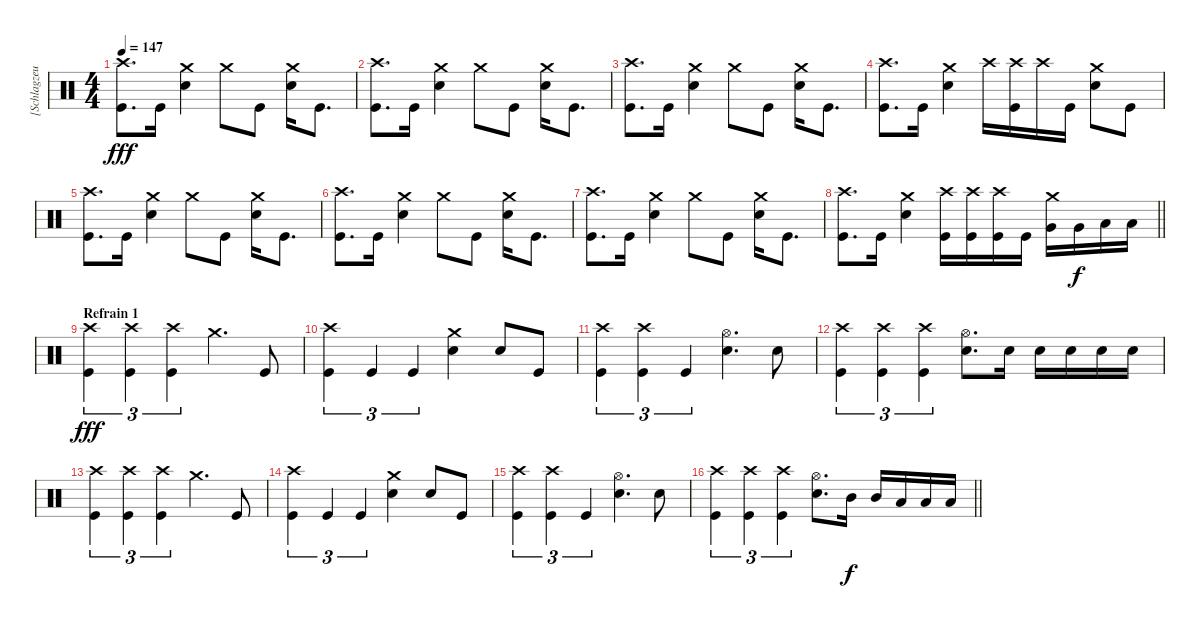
\track ("[Schlagzeug]" "[Schlagzeu") {instrument percussion}
\staff {score}
\articulation defaults
\ts (4 4)
\tempo 147
\clef neutral
\ks c
("Crash high (hit)" "Kick (hit)").8{d dy fff} "Kick (hit)".16 ("Crash medium (hit)" "Electric Snare (hit)").4 "Crash medium (hit)".8 "Kick (hit)".8 ("Crash medium (hit)" "Electric Snare (hit)").16 "Kick (hit)".8{d} |
("Crash high (hit)" "Kick (hit)").8{d} "Kick (hit)".16 ("Crash medium (hit)" "Electric Snare (hit)").4 "Crash medium (hit)".8 "Kick (hit)".8 ("Crash medium (hit)" "Electric Snare (hit)").16 "Kick (hit)".8{d} |
("Crash high (hit)" "Kick (hit)").8{d} "Kick (hit)".16 ("Crash medium (hit)" "Electric Snare (hit)").4 "Crash medium (hit)".8 "Kick (hit)".8 ("Crash medium (hit)" "Electric Snare (hit)").16 "Kick (hit)".8{d} |
("Crash high (hit)" "Kick (hit)").8{d} "Kick (hit)".16 ("Crash medium (hit)" "Electric Snare (hit)").4 "Crash high (hit)".16 ("Crash high (hit)" "Kick (hit)").16 "Crash high (hit)".16 "Kick (hit)".16 ("Crash medium (hit)" "Electric Snare (hit)").8 "Kick (hit)".8 |
("Crash high (hit)" "Kick (hit)").8{d} "Kick (hit)".16 ("Crash medium (hit)" "Electric Snare (hit)").4 "Crash medium (hit)".8 "Kick (hit)".8 ("Crash medium (hit)" "Electric Snare (hit)").16 "Kick (hit)".8{d} |
("Crash high (hit)" "Kick (hit)").8{d} "Kick (hit)".16 ("Crash medium (hit)" "Electric Snare (hit)").4 "Crash medium (hit)".8 "Kick (hit)".8 ("Crash medium (hit)" "Electric Snare (hit)").16 "Kick (hit)".8{d} |
("Crash high (hit)" "Kick (hit)").8{d} "Kick (hit)".16 ("Crash medium (hit)" "Electric Snare (hit)").4 "Crash medium (hit)".8 "Kick (hit)".8 ("Crash medium (hit)" "Electric Snare (hit)").16 "Kick (hit)".8{d} |
\barLineRight lightlight
("Crash high (hit)" "Kick (hit)").8{d} "Kick (hit)".16 ("Crash medium (hit)" "Electric Snare (hit)").4 ("Crash high (hit)" "Kick (hit)").16 ("Crash high (hit)" "Kick (hit)").16 ("Crash high (hit)" "Kick (hit)").16 "Kick (hit)".16 ("Crash medium (hit)" "Very Low Tom (hit)").16 "Very Low Tom (hit)".16{dy f} "Low Floor Tom (hit)".16 "Low Floor Tom (hit)".16 |
\section ("" "Refrain 1")
("Crash high (hit)" "Kick (hit)").4{tu (3 2) dy fff} ("Crash high (hit)" "Kick (hit)").4{tu (3 2)} ("Crash high (hit)" "Kick (hit)").4{tu (3 2)} "Crash medium (hit)".4{d} "Kick (hit)".8 |
("Crash high (hit)" "Kick (hit)").4{tu (3 2)} "Kick (hit)".4{tu (3 2)} "Kick (hit)".4{tu (3 2)} ("Crash medium (hit)" "Electric Snare (hit)").4 "Electric Snare (hit)".8 "Kick (hit)".8 |
("Crash high (hit)" "Kick (hit)").4{tu (3 2)} ("Crash high (hit)" "Kick (hit)").4{tu (3 2)} "Kick (hit)".4{tu (3 2)} ("Hi-Hat (open)" "Electric Snare (hit)").4{d} "Electric Snare (hit)".8 |
("Crash high (hit)" "Kick (hit)").4{tu (3 2)} ("Crash high (hit)" "Kick (hit)").4{tu (3 2)} ("Crash high (hit)" "Kick (hit)").4{tu (3 2)} ("Hi-Hat (open)" "Electric Snare (hit)").8{d} "Electric Snare (hit)".16 "Electric Snare (hit)".16 "Electric Snare (hit)".16 "Electric Snare (hit)".16 "Electric Snare (hit)".16 |
("Crash high (hit)" "Kick (hit)").4{tu (3 2)} ("Crash high (hit)" "Kick (hit)").4{tu (3 2)} ("Crash high (hit)" "Kick (hit)").4{tu (3 2)} "Crash medium (hit)".4{d} "Kick (hit)".8 |
("Crash high (hit)" "Kick (hit)").4{tu (3 2)} "Kick (hit)".4{tu (3 2)} "Kick (hit)".4{tu (3 2)} ("Crash medium (hit)" "Electric Snare (hit)").4 "Electric Snare (hit)".8 "Kick (hit)".8 |
("Crash high (hit)" "Kick (hit)").4{tu (3 2)} ("Crash high (hit)" "Kick (hit)").4{tu (3 2)} "Kick (hit)".4{tu (3 2)} ("Hi-Hat (open)" "Electric Snare (hit)").4{d} "Electric Snare (hit)".8 |
\barLineRight lightlight
("Crash high (hit)" "Kick (hit)").4{tu (3 2)} ("Crash high (hit)" "Kick (hit)").4{tu (3 2)} ("Crash high (hit)" "Kick (hit)").4{tu (3 2)} ("Hi-Hat (open)" "Electric Snare (hit)").8{d} "Mid Tom (hit)".16{dy f} "Mid Tom (hit)".16 "Low Tom (hit)".16 "Low Tom (hit)".16 "Low Floor Tom (hit)".16
